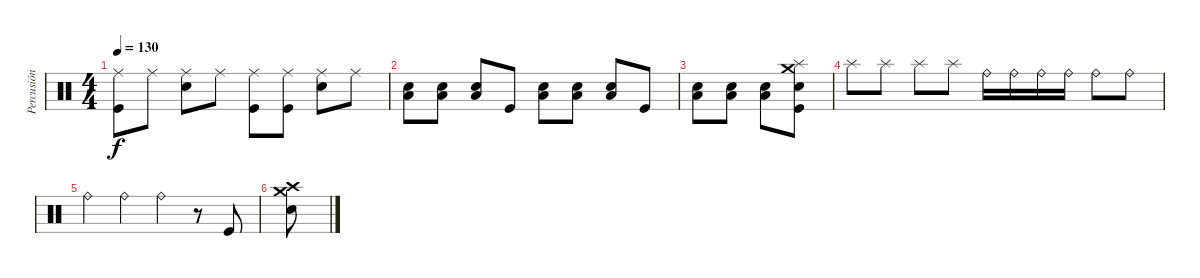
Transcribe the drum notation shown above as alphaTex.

\track ("Percusión" "Percusión") {instrument percussion}
\staff {score}
\articulation defaults
\ts (4 4)
\tempo 130
\clef neutral
\ks c
("Kick (hit)" "Ride (middle)").8{dy f} "Ride (middle)".8 ("Ride (middle)" "Snare (hit) 2").8 "Ride (middle)".8 ("Ride (middle)" "Kick (hit)").8 ("Ride (middle)" "Kick (hit)").8 ("Ride (middle)" "Snare (hit) 2").8 "Ride (middle)".8 |
("Low Tom (hit)" "Snare (hit) 2").8 ("Low Tom (hit)" "Snare (hit) 2").8 ("Low Tom (hit)" "Snare (hit) 2").8 "Kick (hit)".8 ("Low Tom (hit)" "Snare (hit) 2").8 ("Low Tom (hit)" "Snare (hit) 2").8 ("Low Tom (hit)" "Snare (hit) 2").8 "Kick (hit)".8 |
("Low Tom (hit)" "Snare (hit) 2").8 ("Low Tom (hit)" "Snare (hit) 2").8 ("Low Tom (hit)" "Snare (hit) 2").8 ("Splash (hit)" "Crash medium (hit)" "Kick (hit)" "Snare (hit) 2").8 |
"Splash (hit)".8 "Splash (hit)".8 "Splash (hit)".8 "Splash (hit)".8 "Ride (bell)".16 "Ride (bell)".16 "Ride (bell)".16 "Ride (bell)".16 "Ride (bell)".8 "Ride (bell)".8 |
"Ride (bell)".4 "Ride (bell)".4 "Ride (bell)".4 r.8 "Kick (hit)".8 |
("Crash high (hit)" "Crash medium (hit)" "Snare (hit) 2").8
